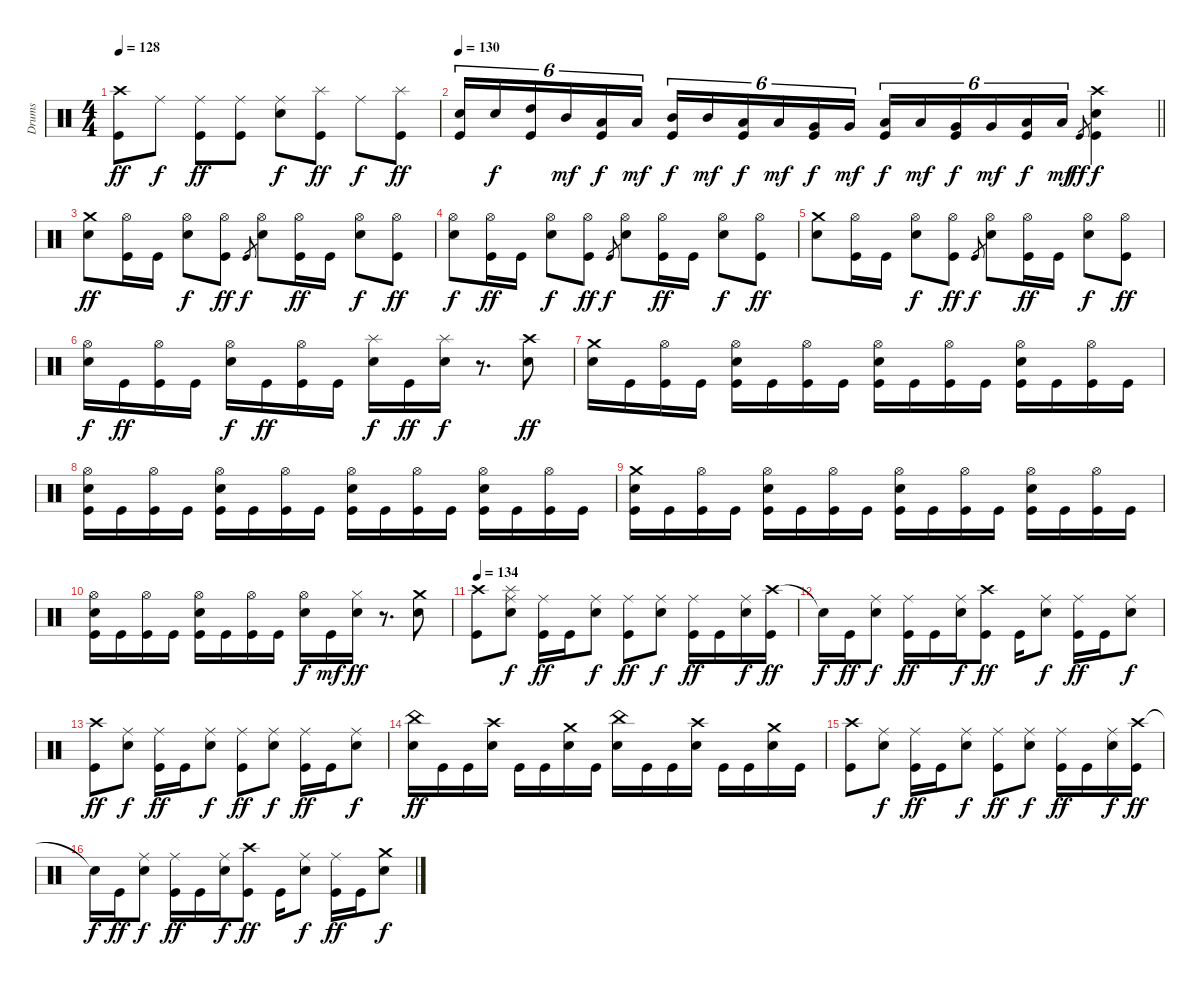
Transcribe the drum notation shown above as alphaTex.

\track ("Drums" "Drums") {instrument percussion}
\staff {score}
\articulation defaults
\ts (4 4)
\tempo 128
\clef neutral
\ks c
("Crash high (hit)" "Kick (hit)").8{dy ff} "Ride (middle)".8{dy f} ("Ride (middle)" "Kick (hit)").8{dy ff} ("Ride (middle)" "Kick (hit)").8 ("Ride (middle)" "Snare (hit) 2").8{dy f} ("Splash (hit)" "Kick (hit)").8{dy ff} "Ride (middle)".8{dy f} ("Splash (hit)" "Kick (hit)").8{dy ff} |
\tempo 130
\barLineRight lightlight
("Snare (hit) 2" "Kick (hit)").16{tu (6 4)} "Snare (hit) 2".16{tu (6 4) dy f} ("High Tom (hit)" "Kick (hit)").16{tu (6 4)} "Mid Tom (hit)".16{tu (6 4) dy mf} ("Low Tom (hit)" "Kick (hit)").16{tu (6 4) dy f} "Low Tom (hit)".16{tu (6 4) dy mf} ("Mid Tom (hit)" "Kick (hit)").16{tu (6 4) dy f} "Mid Tom (hit)".16{tu (6 4) dy mf} ("Low Tom (hit)" "Kick (hit)").16{tu (6 4) dy f} "Low Tom (hit)".16{tu (6 4) dy mf} ("Very Low Tom (hit)" "Kick (hit)").16{tu (6 4) dy f} "Very Low Tom (hit)".16{tu (6 4) dy mf} ("Low Tom (hit)" "Kick (hit)").16{tu (6 4) dy f} "Low Tom (hit)".16{tu (6 4) dy mf} ("Very Low Tom (hit)" "Kick (hit)").16{tu (6 4) dy f} "Very Low Tom (hit)".16{tu (6 4) dy mf} ("Low Floor Tom (hit)" "Kick (hit)").16{tu (6 4) dy f} "Low Floor Tom (hit)".16{tu (6 4) dy mf} "Kick (hit)".8{gr dy ff} ("Crash high (hit)" "Snare (hit) 2" "Kick (hit)").4{dy f} |
("Crash medium (hit)" "Snare (hit) 2").8{dy ff} ("Hi-Hat (open)" "Kick (hit)").16 "Kick (hit)".16 ("Hi-Hat (open)" "Snare (hit) 2").8{dy f} ("Hi-Hat (open)" "Kick (hit)").8{dy ff} "Kick (hit)".8{gr dy f} ("Hi-Hat (open)" "Snare (hit) 2").8 ("Hi-Hat (open)" "Kick (hit)").16{dy ff} "Kick (hit)".16 ("Hi-Hat (open)" "Snare (hit) 2").8{dy f} ("Hi-Hat (open)" "Kick (hit)").8{dy ff} |
("Hi-Hat (open)" "Snare (hit) 2").8{dy f} ("Hi-Hat (open)" "Kick (hit)").16{dy ff} "Kick (hit)".16 ("Hi-Hat (open)" "Snare (hit) 2").8{dy f} ("Hi-Hat (open)" "Kick (hit)").8{dy ff} "Kick (hit)".8{gr dy f} ("Hi-Hat (open)" "Snare (hit) 2").8 ("Hi-Hat (open)" "Kick (hit)").16{dy ff} "Kick (hit)".16 ("Hi-Hat (open)" "Snare (hit) 2").8{dy f} ("Hi-Hat (open)" "Kick (hit)").8{dy ff} |
("Crash medium (hit)" "Snare (hit) 2").8 ("Hi-Hat (open)" "Kick (hit)").16 "Kick (hit)".16 ("Hi-Hat (open)" "Snare (hit) 2").8{dy f} ("Hi-Hat (open)" "Kick (hit)").8{dy ff} "Kick (hit)".8{gr dy f} ("Hi-Hat (open)" "Snare (hit) 2").8 ("Hi-Hat (open)" "Kick (hit)").16{dy ff} "Kick (hit)".16 ("Hi-Hat (open)" "Snare (hit) 2").8{dy f} ("Hi-Hat (open)" "Kick (hit)").8{dy ff} |
("Hi-Hat (open)" "Snare (hit) 2").16{dy f} "Kick (hit)".16{dy ff} ("Hi-Hat (open)" "Kick (hit)").16 "Kick (hit)".16 ("Hi-Hat (open)" "Snare (hit) 2").16{dy f} "Kick (hit)".16{dy ff} ("Hi-Hat (open)" "Kick (hit)").16 "Kick (hit)".16 ("Splash (hit)" "Snare (hit) 2").16{dy f} "Kick (hit)".16{dy ff} ("Splash (hit)" "Snare (hit) 2").16{dy f} r.8{d} ("Crash high (hit)" "Snare (hit) 2").8{dy ff} |
("Crash medium (hit)" "Snare (hit) 2").16 "Kick (hit)".16 ("Hi-Hat (open)" "Kick (hit)").16 "Kick (hit)".16 ("Hi-Hat (open)" "Snare (hit) 2" "Kick (hit)").16 "Kick (hit)".16 ("Hi-Hat (open)" "Kick (hit)").16 "Kick (hit)".16 ("Hi-Hat (open)" "Snare (hit) 2" "Kick (hit)").16 "Kick (hit)".16 ("Hi-Hat (open)" "Kick (hit)").16 "Kick (hit)".16 ("Hi-Hat (open)" "Snare (hit) 2" "Kick (hit)").16 "Kick (hit)".16 ("Hi-Hat (open)" "Kick (hit)").16 "Kick (hit)".16 |
("Hi-Hat (open)" "Snare (hit) 2" "Kick (hit)").16 "Kick (hit)".16 ("Hi-Hat (open)" "Kick (hit)").16 "Kick (hit)".16 ("Hi-Hat (open)" "Snare (hit) 2" "Kick (hit)").16 "Kick (hit)".16 ("Hi-Hat (open)" "Kick (hit)").16 "Kick (hit)".16 ("Hi-Hat (open)" "Snare (hit) 2" "Kick (hit)").16 "Kick (hit)".16 ("Hi-Hat (open)" "Kick (hit)").16 "Kick (hit)".16 ("Hi-Hat (open)" "Snare (hit) 2" "Kick (hit)").16 "Kick (hit)".16 ("Hi-Hat (open)" "Kick (hit)").16 "Kick (hit)".16 |
("Crash medium (hit)" "Snare (hit) 2" "Kick (hit)").16 "Kick (hit)".16 ("Hi-Hat (open)" "Kick (hit)").16 "Kick (hit)".16 ("Hi-Hat (open)" "Snare (hit) 2" "Kick (hit)").16 "Kick (hit)".16 ("Hi-Hat (open)" "Kick (hit)").16 "Kick (hit)".16 ("Hi-Hat (open)" "Snare (hit) 2" "Kick (hit)").16 "Kick (hit)".16 ("Hi-Hat (open)" "Kick (hit)").16 "Kick (hit)".16 ("Hi-Hat (open)" "Snare (hit) 2" "Kick (hit)").16 "Kick (hit)".16 ("Hi-Hat (open)" "Kick (hit)").16 "Kick (hit)".16 |
("Hi-Hat (open)" "Snare (hit) 2" "Kick (hit)").16 "Kick (hit)".16 ("Hi-Hat (open)" "Kick (hit)").16 "Kick (hit)".16 ("Hi-Hat (open)" "Snare (hit) 2" "Kick (hit)").16 "Kick (hit)".16 ("Hi-Hat (open)" "Kick (hit)").16 "Kick (hit)".16 ("Hi-Hat (open)" "Snare (hit) 2").16{dy f} "Kick (hit)".16{dy mf} ("Hi-Hat (closed)" "Snare (hit) 2").16{dy ff} r.8{d} ("Crash medium (hit)" "Snare (hit) 2").8 |
\tempo 134
("Crash high (hit)" "Kick (hit)").8 ("Splash (hit)" "Ride (middle)" "Snare (hit) 2").8{dy f} ("Ride (middle)" "Kick (hit)").16{dy ff} "Kick (hit)".16 ("Ride (middle)" "Snare (hit) 2").8{dy f} ("Ride (middle)" "Kick (hit)").8{dy ff} ("Ride (middle)" "Snare (hit) 2").8{dy f} ("Ride (middle)" "Kick (hit)").16{dy ff} "Kick (hit)".16 ("Ride (middle)" "Snare (hit) 2").16{dy f} ("Crash high (hit)" "Kick (hit)").16{dy ff} |
"Snare (hit)"{t}.16{dy f} "Kick (hit)".16{dy ff} ("Ride (middle)" "Snare (hit) 2").8{dy f} ("Ride (middle)" "Kick (hit)").16{dy ff} "Kick (hit)".16 ("Ride (middle)" "Snare (hit) 2").16{dy f} ("Crash high (hit)" "Kick (hit)").8{dy ff} "Kick (hit)".16 ("Ride (middle)" "Snare (hit) 2").8{dy f} ("Ride (middle)" "Kick (hit)").16{dy ff} "Kick (hit)".16 ("Ride (middle)" "Snare (hit) 2").8{dy f} |
("Crash high (hit)" "Kick (hit)").8{dy ff} ("Ride (middle)" "Snare (hit) 2").8{dy f} ("Ride (middle)" "Kick (hit)").16{dy ff} "Kick (hit)".16 ("Ride (middle)" "Snare (hit) 2").8{dy f} ("Ride (middle)" "Kick (hit)").8{dy ff} ("Ride (middle)" "Snare (hit) 2").8{dy f} ("Ride (middle)" "Kick (hit)").16{dy ff} "Kick (hit)".16 ("Ride (middle)" "Snare (hit) 2").8{dy f} |
("China (hit)" "Snare (hit) 2").16{dy ff} "Kick (hit)".16 "Kick (hit)".16 ("Crash high (hit)" "Snare (hit) 2").16 "Kick (hit)".16 "Kick (hit)".16 ("Crash medium (hit)" "Snare (hit) 2").16 "Kick (hit)".16 ("China (hit)" "Snare (hit) 2").16 "Kick (hit)".16 "Kick (hit)".16 ("Crash high (hit)" "Snare (hit) 2").16 "Kick (hit)".16 "Kick (hit)".16 ("Crash medium (hit)" "Snare (hit) 2").16 "Kick (hit)".16 |
("Crash high (hit)" "Kick (hit)").8 ("Ride (middle)" "Snare (hit) 2").8{dy f} ("Ride (middle)" "Kick (hit)").16{dy ff} "Kick (hit)".16 ("Ride (middle)" "Snare (hit) 2").8{dy f} ("Ride (middle)" "Kick (hit)").8{dy ff} ("Ride (middle)" "Snare (hit) 2").8{dy f} ("Ride (middle)" "Kick (hit)").16{dy ff} "Kick (hit)".16 ("Ride (middle)" "Snare (hit) 2").16{dy f} ("Crash high (hit)" "Kick (hit)").16{dy ff} |
"Snare (hit)"{t}.16{dy f} "Kick (hit)".16{dy ff} ("Ride (middle)" "Snare (hit) 2").8{dy f} ("Ride (middle)" "Kick (hit)").16{dy ff} "Kick (hit)".16 ("Ride (middle)" "Snare (hit) 2").16{dy f} ("Crash high (hit)" "Kick (hit)").8{dy ff} "Kick (hit)".16 ("Ride (middle)" "Snare (hit) 2").8{dy f} ("Ride (middle)" "Kick (hit)").16{dy ff} "Kick (hit)".16 ("Crash medium (hit)" "Snare (hit) 2").8{dy f}
